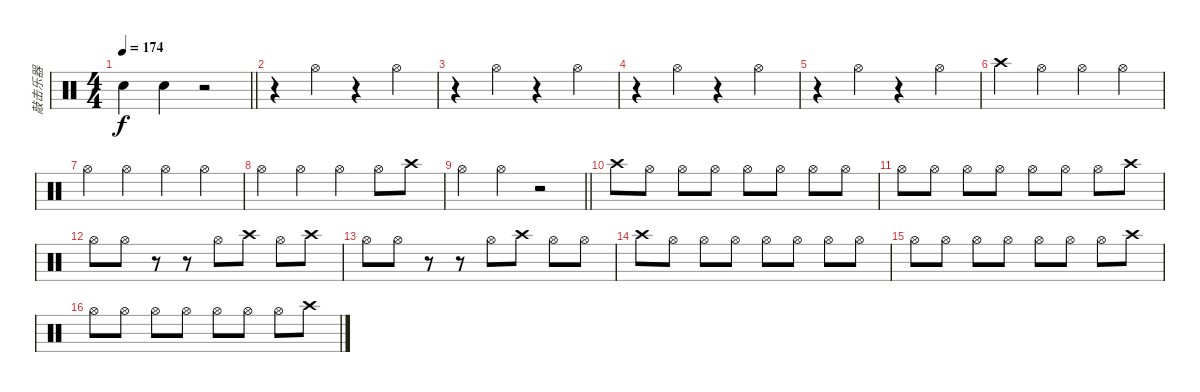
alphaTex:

\track ("敲击乐器" "敲击乐器") {instrument percussion}
\staff {score}
\articulation defaults
\ts (4 4)
\tempo 174
\clef neutral
\barLineRight lightlight
\ks c "Snare (hit) 2".4{dy f} "Snare (hit) 2".4
r.2 |
r.4 "Hi-Hat (open)".4 r.4 "Hi-Hat (open)".4 |
r.4 "Hi-Hat (open)".4 r.4 "Hi-Hat (open)".4 |
r.4 "Hi-Hat (open)".4 r.4 "Hi-Hat (open)".4 |
r.4 "Hi-Hat (open)".4 r.4 "Hi-Hat (open)".4 |
"Crash high (hit)".4 "Hi-Hat (open)".4 "Hi-Hat (open)".4 "Hi-Hat (open)".4 |
"Hi-Hat (open)".4 "Hi-Hat (open)".4 "Hi-Hat (open)".4 "Hi-Hat (open)".4 |
"Hi-Hat (open)".4 "Hi-Hat (open)".4 "Hi-Hat (open)".4 "Hi-Hat (open)".8 "Crash high (hit)".8 |
\barLineRight lightlight "Hi-Hat (open)".4 "Hi-Hat (open)".4
r.2 |
"Crash high (hit)".8 "Hi-Hat (open)".8 "Hi-Hat (open)".8 "Hi-Hat (open)".8 "Hi-Hat (open)".8 "Hi-Hat (open)".8 "Hi-Hat (open)".8 "Hi-Hat (open)".8 |
"Hi-Hat (open)".8 "Hi-Hat (open)".8 "Hi-Hat (open)".8 "Hi-Hat (open)".8 "Hi-Hat (open)".8 "Hi-Hat (open)".8 "Hi-Hat (open)".8 "Crash high (hit)".8 |
"Hi-Hat (open)".8 "Hi-Hat (open)".8 r.8 r.8 "Hi-Hat (open)".8 "Crash high (hit)".8 "Hi-Hat (open)".8 "Crash high (hit)".8 |
"Hi-Hat (open)".8 "Hi-Hat (open)".8 r.8 r.8 "Hi-Hat (open)".8 "Crash high (hit)".8 "Hi-Hat (open)".8 "Hi-Hat (open)".8 |
"Crash high (hit)".8 "Hi-Hat (open)".8 "Hi-Hat (open)".8 "Hi-Hat (open)".8 "Hi-Hat (open)".8 "Hi-Hat (open)".8 "Hi-Hat (open)".8 "Hi-Hat (open)".8 |
"Hi-Hat (open)".8 "Hi-Hat (open)".8 "Hi-Hat (open)".8 "Hi-Hat (open)".8 "Hi-Hat (open)".8 "Hi-Hat (open)".8 "Hi-Hat (open)".8 "Crash high (hit)".8 |
"Hi-Hat (open)".8 "Hi-Hat (open)".8 "Hi-Hat (open)".8 "Hi-Hat (open)".8 "Hi-Hat (open)".8 "Hi-Hat (open)".8 "Hi-Hat (open)".8 "Crash high (hit)".8
